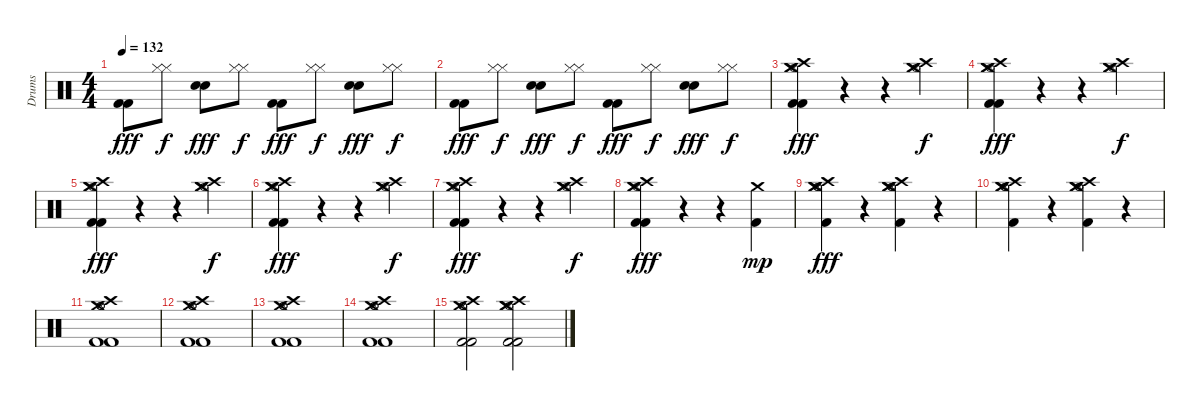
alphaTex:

\track ("Drums" "Drums") {instrument percussion}
\staff {score}
\articulation defaults
\ts (4 4)
\tempo 132
\clef neutral
\ks c
("Kick (hit) 2" "Kick (hit) 2").8{dy fff} ("Hi-Hat (closed)" "Hi-Hat (closed)").8{dy f} ("Snare (hit) 2" "Snare (hit) 2").8{dy fff} ("Hi-Hat (closed)" "Hi-Hat (closed)").8{dy f} ("Kick (hit) 2" "Kick (hit) 2").8{dy fff} ("Hi-Hat (closed)" "Hi-Hat (closed)").8{dy f} ("Snare (hit) 2" "Snare (hit) 2").8{dy fff} ("Hi-Hat (closed)" "Hi-Hat (closed)").8{dy f} |
("Kick (hit) 2" "Kick (hit) 2").8{dy fff} ("Hi-Hat (closed)" "Hi-Hat (closed)").8{dy f} ("Snare (hit) 2" "Snare (hit) 2").8{dy fff} ("Hi-Hat (closed)" "Hi-Hat (closed)").8{dy f} ("Kick (hit) 2" "Kick (hit) 2").8{dy fff} ("Hi-Hat (closed)" "Hi-Hat (closed)").8{dy f} ("Snare (hit) 2" "Snare (hit) 2").8{dy fff} ("Hi-Hat (closed)" "Hi-Hat (closed)").8{dy f} |
("Kick (hit) 2" "Kick (hit) 2" "Crash high (hit)" "Hi-Hat (open)" "Crash medium (hit)" "Crash medium (hit)").4{dy fff} r.4 r.4 ("Crash high (hit)" "Hi-Hat (open)" "Crash medium (hit)" "Crash medium (hit)").4{dy f} |
("Kick (hit) 2" "Kick (hit) 2" "Crash high (hit)" "Hi-Hat (open)" "Crash medium (hit)" "Crash medium (hit)").4{dy fff} r.4 r.4 ("Crash high (hit)" "Hi-Hat (open)" "Crash medium (hit)" "Crash medium (hit)").4{dy f} |
("Kick (hit) 2" "Kick (hit) 2" "Crash high (hit)" "Hi-Hat (open)" "Crash medium (hit)" "Crash medium (hit)").4{dy fff} r.4 r.4 ("Crash high (hit)" "Hi-Hat (open)" "Crash medium (hit)" "Crash medium (hit)").4{dy f} |
("Kick (hit) 2" "Kick (hit) 2" "Crash high (hit)" "Hi-Hat (open)" "Crash medium (hit)" "Crash medium (hit)").4{dy fff} r.4 r.4 ("Crash high (hit)" "Hi-Hat (open)" "Crash medium (hit)" "Crash medium (hit)").4{dy f} |
("Kick (hit) 2" "Kick (hit) 2" "Crash high (hit)" "Hi-Hat (open)" "Crash medium (hit)" "Crash medium (hit)").4{dy fff} r.4 r.4 ("Crash high (hit)" "Hi-Hat (open)" "Crash medium (hit)" "Crash medium (hit)").4{dy f} |
("Kick (hit) 2" "Kick (hit) 2" "Crash high (hit)" "Hi-Hat (open)" "Crash medium (hit)" "Crash medium (hit)").4{dy fff} r.4 r.4 ("Kick (hit) 2" "Crash medium (hit)").4{dy mp} |
("Kick (hit) 2" "Crash high (hit)" "Hi-Hat (open)" "Hi-Hat (open)" "Crash medium (hit)" "Crash medium (hit)").4{dy fff} r.4 ("Kick (hit) 2" "Crash high (hit)" "Hi-Hat (open)" "Hi-Hat (open)" "Crash medium (hit)" "Crash medium (hit)").4 r.4 |
("Kick (hit) 2" "Crash high (hit)" "Hi-Hat (open)" "Hi-Hat (open)" "Crash medium (hit)" "Crash medium (hit)").4 r.4 ("Kick (hit) 2" "Crash high (hit)" "Hi-Hat (open)" "Hi-Hat (open)" "Crash medium (hit)" "Crash medium (hit)").4 r.4 |
("Kick (hit) 2" "Kick (hit) 2" "Crash high (hit)" "Hi-Hat (open)" "Hi-Hat (open)" "Crash medium (hit)").1 |
("Kick (hit) 2" "Kick (hit) 2" "Crash high (hit)" "Hi-Hat (open)" "Hi-Hat (open)" "Crash medium (hit)").1 |
("Kick (hit) 2" "Kick (hit) 2" "Crash high (hit)" "Hi-Hat (open)" "Hi-Hat (open)" "Crash medium (hit)").1 |
("Kick (hit) 2" "Kick (hit) 2" "Crash high (hit)" "Hi-Hat (open)" "Hi-Hat (open)" "Crash medium (hit)").1 |
("Kick (hit) 2" "Kick (hit) 2" "Crash high (hit)" "Hi-Hat (open)" "Hi-Hat (open)" "Crash medium (hit)").2 ("Kick (hit) 2" "Kick (hit) 2" "Crash high (hit)" "Hi-Hat (open)" "Crash medium (hit)" "Crash medium (hit)").2
